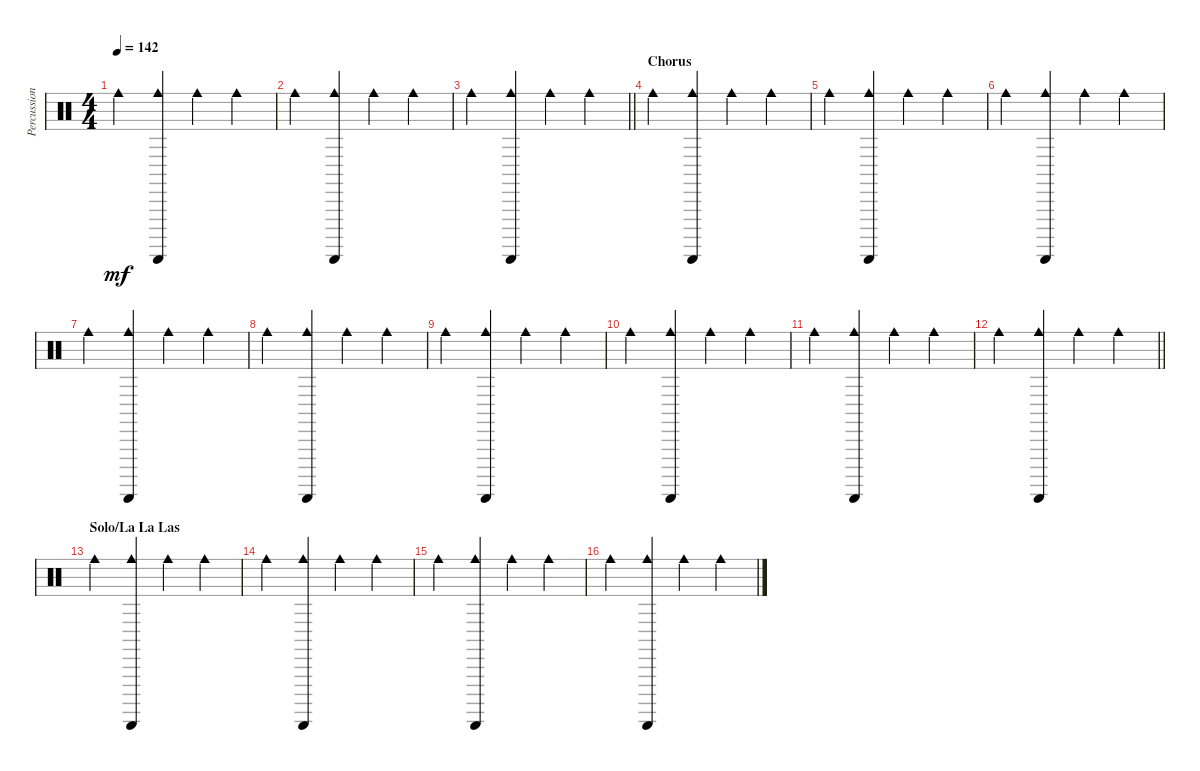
\track ("Percussion" "Percussion") {instrument percussion}
\staff {score}
\articulation defaults
\ts (4 4)
\tempo 142
\clef neutral
\ks c "Cowbell medium (hit)".4{dy mf}
("Guiro (scrap-return)" "Cowbell medium (hit)").4 "Cowbell medium (hit)".4 "Cowbell medium (hit)".4 |
"Cowbell medium (hit)".4 ("Guiro (scrap-return)" "Cowbell medium (hit)").4 "Cowbell medium (hit)".4 "Cowbell medium (hit)".4 |
\barLineRight lightlight "Cowbell medium (hit)".4
("Guiro (scrap-return)" "Cowbell medium (hit)").4 "Cowbell medium (hit)".4 "Cowbell medium (hit)".4 |
\section ("" "Chorus")
"Cowbell medium (hit)".4 ("Guiro (scrap-return)" "Cowbell medium (hit)").4 "Cowbell medium (hit)".4 "Cowbell medium (hit)".4 |
"Cowbell medium (hit)".4 ("Guiro (scrap-return)" "Cowbell medium (hit)").4 "Cowbell medium (hit)".4 "Cowbell medium (hit)".4 |
"Cowbell medium (hit)".4 ("Guiro (scrap-return)" "Cowbell medium (hit)").4 "Cowbell medium (hit)".4 "Cowbell medium (hit)".4 |
"Cowbell medium (hit)".4 ("Guiro (scrap-return)" "Cowbell medium (hit)").4 "Cowbell medium (hit)".4 "Cowbell medium (hit)".4 |
"Cowbell medium (hit)".4 ("Guiro (scrap-return)" "Cowbell medium (hit)").4 "Cowbell medium (hit)".4 "Cowbell medium (hit)".4 |
"Cowbell medium (hit)".4 ("Guiro (scrap-return)" "Cowbell medium (hit)").4 "Cowbell medium (hit)".4 "Cowbell medium (hit)".4 |
"Cowbell medium (hit)".4 ("Guiro (scrap-return)" "Cowbell medium (hit)").4 "Cowbell medium (hit)".4 "Cowbell medium (hit)".4 |
"Cowbell medium (hit)".4 ("Guiro (scrap-return)" "Cowbell medium (hit)").4 "Cowbell medium (hit)".4 "Cowbell medium (hit)".4 |
\barLineRight lightlight "Cowbell medium (hit)".4
("Guiro (scrap-return)" "Cowbell medium (hit)").4 "Cowbell medium (hit)".4 "Cowbell medium (hit)".4 |
\section ("" "Solo/La La Las")
"Cowbell medium (hit)".4 ("Guiro (scrap-return)" "Cowbell medium (hit)").4 "Cowbell medium (hit)".4 "Cowbell medium (hit)".4 |
"Cowbell medium (hit)".4 ("Guiro (scrap-return)" "Cowbell medium (hit)").4 "Cowbell medium (hit)".4 "Cowbell medium (hit)".4 |
"Cowbell medium (hit)".4 ("Guiro (scrap-return)" "Cowbell medium (hit)").4 "Cowbell medium (hit)".4 "Cowbell medium (hit)".4 |
"Cowbell medium (hit)".4 ("Guiro (scrap-return)" "Cowbell medium (hit)").4 "Cowbell medium (hit)".4 "Cowbell medium (hit)".4
